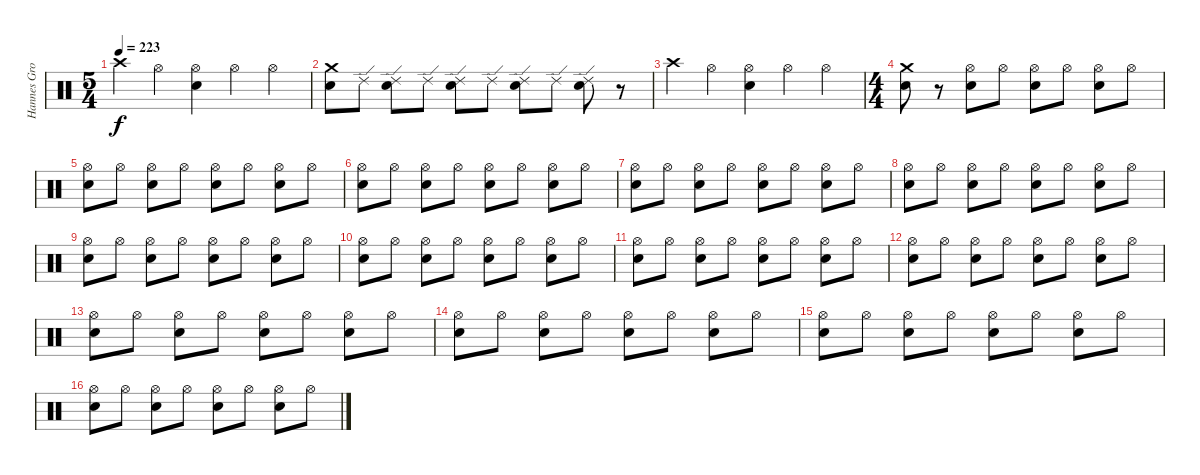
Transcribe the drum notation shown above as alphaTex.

\track ("Hannes Grossmann" "Hannes Gro") {instrument percussion}
\staff {score}
\articulation defaults
\ts (5 4)
\tempo 223
\clef neutral
\ks c "Crash high (hit)".4{dy f} "Hi-Hat (open)".4
("Hi-Hat (open)" "Electric Snare (hit)").4 "Hi-Hat (open)".4 "Hi-Hat (open)".4 |
("Crash medium (hit)" "Electric Snare (hit)").8 "Ride (edge) 2".8 ("Ride (edge) 2" "Electric Snare (hit)").8 "Ride (edge) 2".8 ("Ride (edge) 2" "Electric Snare (hit)").8 "Ride (edge) 2".8 ("Ride (edge) 2" "Electric Snare (hit)").8 "Ride (edge) 2".8 ("Ride (edge) 2" "Electric Snare (hit)").8 r.8 |
"Crash high (hit)".4 "Hi-Hat (open)".4 ("Hi-Hat (open)" "Electric Snare (hit)").4 "Hi-Hat (open)".4 "Hi-Hat (open)".4 |
\ts (4 4)
("Crash medium (hit)" "Electric Snare (hit)").8 r.8 ("Hi-Hat (open)" "Electric Snare (hit)").8 "Hi-Hat (open)".8 ("Hi-Hat (open)" "Electric Snare (hit)").8 "Hi-Hat (open)".8 ("Hi-Hat (open)" "Electric Snare (hit)").8 "Hi-Hat (open)".8 |
("Hi-Hat (open)" "Electric Snare (hit)").8 "Hi-Hat (open)".8 ("Hi-Hat (open)" "Electric Snare (hit)").8 "Hi-Hat (open)".8 ("Hi-Hat (open)" "Electric Snare (hit)").8 "Hi-Hat (open)".8 ("Hi-Hat (open)" "Electric Snare (hit)").8 "Hi-Hat (open)".8 |
("Hi-Hat (open)" "Electric Snare (hit)").8 "Hi-Hat (open)".8 ("Hi-Hat (open)" "Electric Snare (hit)").8 "Hi-Hat (open)".8 ("Hi-Hat (open)" "Electric Snare (hit)").8 "Hi-Hat (open)".8 ("Hi-Hat (open)" "Electric Snare (hit)").8 "Hi-Hat (open)".8 |
("Hi-Hat (open)" "Electric Snare (hit)").8 "Hi-Hat (open)".8 ("Hi-Hat (open)" "Electric Snare (hit)").8 "Hi-Hat (open)".8 ("Hi-Hat (open)" "Electric Snare (hit)").8 "Hi-Hat (open)".8 ("Hi-Hat (open)" "Electric Snare (hit)").8 "Hi-Hat (open)".8 |
("Hi-Hat (open)" "Electric Snare (hit)").8 "Hi-Hat (open)".8 ("Hi-Hat (open)" "Electric Snare (hit)").8 "Hi-Hat (open)".8 ("Hi-Hat (open)" "Electric Snare (hit)").8 "Hi-Hat (open)".8 ("Hi-Hat (open)" "Electric Snare (hit)").8 "Hi-Hat (open)".8 |
("Hi-Hat (open)" "Electric Snare (hit)").8 "Hi-Hat (open)".8 ("Hi-Hat (open)" "Electric Snare (hit)").8 "Hi-Hat (open)".8 ("Hi-Hat (open)" "Electric Snare (hit)").8 "Hi-Hat (open)".8 ("Hi-Hat (open)" "Electric Snare (hit)").8 "Hi-Hat (open)".8 |
("Hi-Hat (open)" "Electric Snare (hit)").8 "Hi-Hat (open)".8 ("Hi-Hat (open)" "Electric Snare (hit)").8 "Hi-Hat (open)".8 ("Hi-Hat (open)" "Electric Snare (hit)").8 "Hi-Hat (open)".8 ("Hi-Hat (open)" "Electric Snare (hit)").8 "Hi-Hat (open)".8 |
("Hi-Hat (open)" "Electric Snare (hit)").8 "Hi-Hat (open)".8 ("Hi-Hat (open)" "Electric Snare (hit)").8 "Hi-Hat (open)".8 ("Hi-Hat (open)" "Electric Snare (hit)").8 "Hi-Hat (open)".8 ("Hi-Hat (open)" "Electric Snare (hit)").8 "Hi-Hat (open)".8 |
("Hi-Hat (open)" "Electric Snare (hit)").8 "Hi-Hat (open)".8 ("Hi-Hat (open)" "Electric Snare (hit)").8 "Hi-Hat (open)".8 ("Hi-Hat (open)" "Electric Snare (hit)").8 "Hi-Hat (open)".8 ("Hi-Hat (open)" "Electric Snare (hit)").8 "Hi-Hat (open)".8 |
("Hi-Hat (open)" "Electric Snare (hit)").8 "Hi-Hat (open)".8 ("Hi-Hat (open)" "Electric Snare (hit)").8 "Hi-Hat (open)".8 ("Hi-Hat (open)" "Electric Snare (hit)").8 "Hi-Hat (open)".8 ("Hi-Hat (open)" "Electric Snare (hit)").8 "Hi-Hat (open)".8 |
("Hi-Hat (open)" "Electric Snare (hit)").8 "Hi-Hat (open)".8 ("Hi-Hat (open)" "Electric Snare (hit)").8 "Hi-Hat (open)".8 ("Hi-Hat (open)" "Electric Snare (hit)").8 "Hi-Hat (open)".8 ("Hi-Hat (open)" "Electric Snare (hit)").8 "Hi-Hat (open)".8 |
("Hi-Hat (open)" "Electric Snare (hit)").8 "Hi-Hat (open)".8 ("Hi-Hat (open)" "Electric Snare (hit)").8 "Hi-Hat (open)".8 ("Hi-Hat (open)" "Electric Snare (hit)").8 "Hi-Hat (open)".8 ("Hi-Hat (open)" "Electric Snare (hit)").8 "Hi-Hat (open)".8 |
("Hi-Hat (open)" "Electric Snare (hit)").8 "Hi-Hat (open)".8 ("Hi-Hat (open)" "Electric Snare (hit)").8 "Hi-Hat (open)".8 ("Hi-Hat (open)" "Electric Snare (hit)").8 "Hi-Hat (open)".8 ("Hi-Hat (open)" "Electric Snare (hit)").8 "Hi-Hat (open)".8
